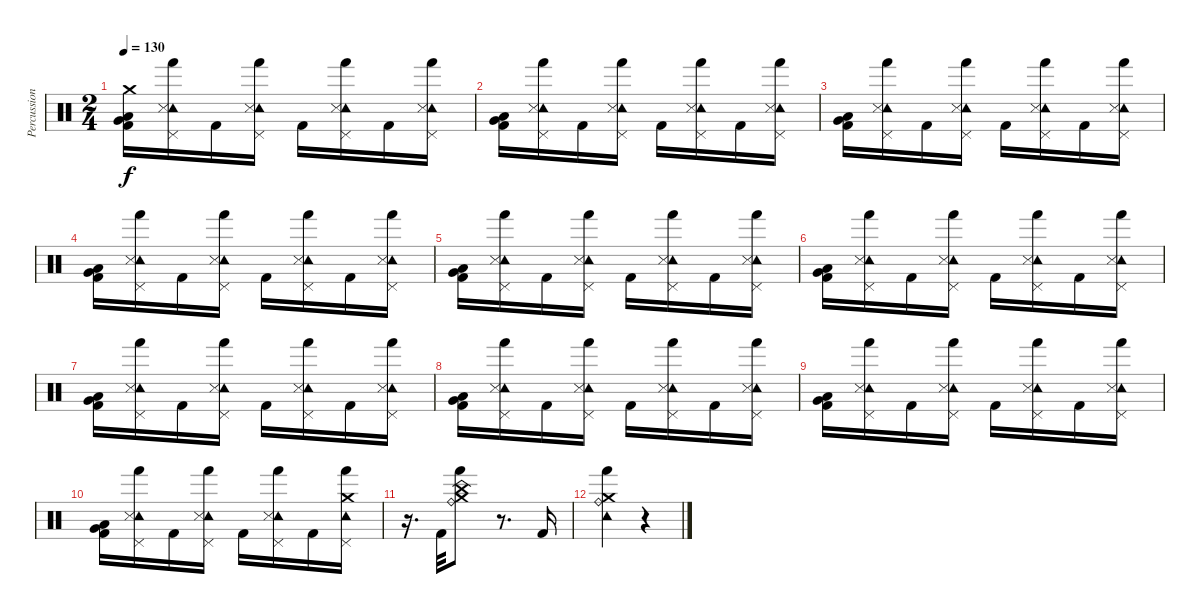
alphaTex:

\track ("Percussion" "Percussion") {instrument percussion}
\staff {score}
\articulation defaults
\ts (2 4)
\tempo 130
\clef neutral
\ks c
("Crash medium (hit)" "Very Low Tom (hit)" "Low Tom (hit)" "Kick (hit) 2").16{dy f} ("Tambourine (hit)" "Snare (side stick) 3" "Pedal Hi-Hat (hit)" "Hand (hit)").16 "Kick (hit) 2".16 ("Tambourine (hit)" "Snare (side stick) 3" "Pedal Hi-Hat (hit)" "Hand (hit)").16 "Kick (hit) 2".16 ("Tambourine (hit)" "Snare (side stick) 3" "Pedal Hi-Hat (hit)" "Hand (hit)").16 "Kick (hit) 2".16 ("Tambourine (hit)" "Snare (side stick) 3" "Pedal Hi-Hat (hit)" "Hand (hit)").16 |
("Very Low Tom (hit)" "Low Tom (hit)" "Kick (hit) 2").16 ("Tambourine (hit)" "Snare (side stick) 3" "Pedal Hi-Hat (hit)" "Hand (hit)").16 "Kick (hit) 2".16 ("Tambourine (hit)" "Snare (side stick) 3" "Pedal Hi-Hat (hit)" "Hand (hit)").16 "Kick (hit) 2".16 ("Tambourine (hit)" "Snare (side stick) 3" "Pedal Hi-Hat (hit)" "Hand (hit)").16 "Kick (hit) 2".16 ("Tambourine (hit)" "Snare (side stick) 3" "Pedal Hi-Hat (hit)" "Hand (hit)").16 |
("Very Low Tom (hit)" "Low Tom (hit)" "Kick (hit) 2").16 ("Tambourine (hit)" "Snare (side stick) 3" "Pedal Hi-Hat (hit)" "Hand (hit)").16 "Kick (hit) 2".16 ("Tambourine (hit)" "Snare (side stick) 3" "Pedal Hi-Hat (hit)" "Hand (hit)").16 "Kick (hit) 2".16 ("Tambourine (hit)" "Snare (side stick) 3" "Pedal Hi-Hat (hit)" "Hand (hit)").16 "Kick (hit) 2".16 ("Tambourine (hit)" "Snare (side stick) 3" "Pedal Hi-Hat (hit)" "Hand (hit)").16 |
("Very Low Tom (hit)" "Low Tom (hit)" "Kick (hit) 2").16 ("Tambourine (hit)" "Snare (side stick) 3" "Pedal Hi-Hat (hit)" "Hand (hit)").16 "Kick (hit) 2".16 ("Tambourine (hit)" "Snare (side stick) 3" "Pedal Hi-Hat (hit)" "Hand (hit)").16 "Kick (hit) 2".16 ("Tambourine (hit)" "Snare (side stick) 3" "Pedal Hi-Hat (hit)" "Hand (hit)").16 "Kick (hit) 2".16 ("Tambourine (hit)" "Snare (side stick) 3" "Pedal Hi-Hat (hit)" "Hand (hit)").16 |
("Very Low Tom (hit)" "Low Tom (hit)" "Kick (hit) 2").16 ("Tambourine (hit)" "Snare (side stick) 3" "Pedal Hi-Hat (hit)" "Hand (hit)").16 "Kick (hit) 2".16 ("Tambourine (hit)" "Snare (side stick) 3" "Pedal Hi-Hat (hit)" "Hand (hit)").16 "Kick (hit) 2".16 ("Tambourine (hit)" "Snare (side stick) 3" "Pedal Hi-Hat (hit)" "Hand (hit)").16 "Kick (hit) 2".16 ("Tambourine (hit)" "Snare (side stick) 3" "Pedal Hi-Hat (hit)" "Hand (hit)").16 |
("Very Low Tom (hit)" "Low Tom (hit)" "Kick (hit) 2").16 ("Tambourine (hit)" "Snare (side stick) 3" "Pedal Hi-Hat (hit)" "Hand (hit)").16 "Kick (hit) 2".16 ("Tambourine (hit)" "Snare (side stick) 3" "Pedal Hi-Hat (hit)" "Hand (hit)").16 "Kick (hit) 2".16 ("Tambourine (hit)" "Snare (side stick) 3" "Pedal Hi-Hat (hit)" "Hand (hit)").16 "Kick (hit) 2".16 ("Tambourine (hit)" "Snare (side stick) 3" "Pedal Hi-Hat (hit)" "Hand (hit)").16 |
("Very Low Tom (hit)" "Low Tom (hit)" "Kick (hit) 2").16 ("Tambourine (hit)" "Snare (side stick) 3" "Pedal Hi-Hat (hit)" "Hand (hit)").16 "Kick (hit) 2".16 ("Tambourine (hit)" "Snare (side stick) 3" "Pedal Hi-Hat (hit)" "Hand (hit)").16 "Kick (hit) 2".16 ("Tambourine (hit)" "Snare (side stick) 3" "Pedal Hi-Hat (hit)" "Hand (hit)").16 "Kick (hit) 2".16 ("Tambourine (hit)" "Snare (side stick) 3" "Pedal Hi-Hat (hit)" "Hand (hit)").16 |
("Very Low Tom (hit)" "Low Tom (hit)" "Kick (hit) 2").16 ("Tambourine (hit)" "Snare (side stick) 3" "Pedal Hi-Hat (hit)" "Hand (hit)").16 "Kick (hit) 2".16 ("Tambourine (hit)" "Snare (side stick) 3" "Pedal Hi-Hat (hit)" "Hand (hit)").16 "Kick (hit) 2".16 ("Tambourine (hit)" "Snare (side stick) 3" "Pedal Hi-Hat (hit)" "Hand (hit)").16 "Kick (hit) 2".16 ("Tambourine (hit)" "Snare (side stick) 3" "Pedal Hi-Hat (hit)" "Hand (hit)").16 |
("Very Low Tom (hit)" "Low Tom (hit)" "Kick (hit) 2").16 ("Tambourine (hit)" "Snare (side stick) 3" "Pedal Hi-Hat (hit)" "Hand (hit)").16 "Kick (hit) 2".16 ("Tambourine (hit)" "Snare (side stick) 3" "Pedal Hi-Hat (hit)" "Hand (hit)").16 "Kick (hit) 2".16 ("Tambourine (hit)" "Snare (side stick) 3" "Pedal Hi-Hat (hit)" "Hand (hit)").16 "Kick (hit) 2".16 ("Tambourine (hit)" "Snare (side stick) 3" "Pedal Hi-Hat (hit)" "Hand (hit)").16 |
("Very Low Tom (hit)" "Low Tom (hit)" "Kick (hit) 2").16 ("Tambourine (hit)" "Snare (side stick) 3" "Pedal Hi-Hat (hit)" "Hand (hit)").16 "Kick (hit) 2".16 ("Tambourine (hit)" "Snare (side stick) 3" "Pedal Hi-Hat (hit)" "Hand (hit)").16 "Kick (hit) 2".16 ("Tambourine (hit)" "Snare (side stick) 3" "Pedal Hi-Hat (hit)" "Hand (hit)").16 "Kick (hit) 2".16 ("Crash medium (hit)" "Tambourine (hit)" "Pedal Hi-Hat (hit)" "Hand (hit)").16 |
r.16{d} "Kick (hit) 2".32 ("Crash medium (hit)" "China (hit)" "Ride (bell)" "Hand (hit)").8 r.8{d} "Kick (hit) 2".16 |
("Tambourine (hit)" "Crash medium (hit)" "Ride (bell)" "Hand (hit)").4 r.4
